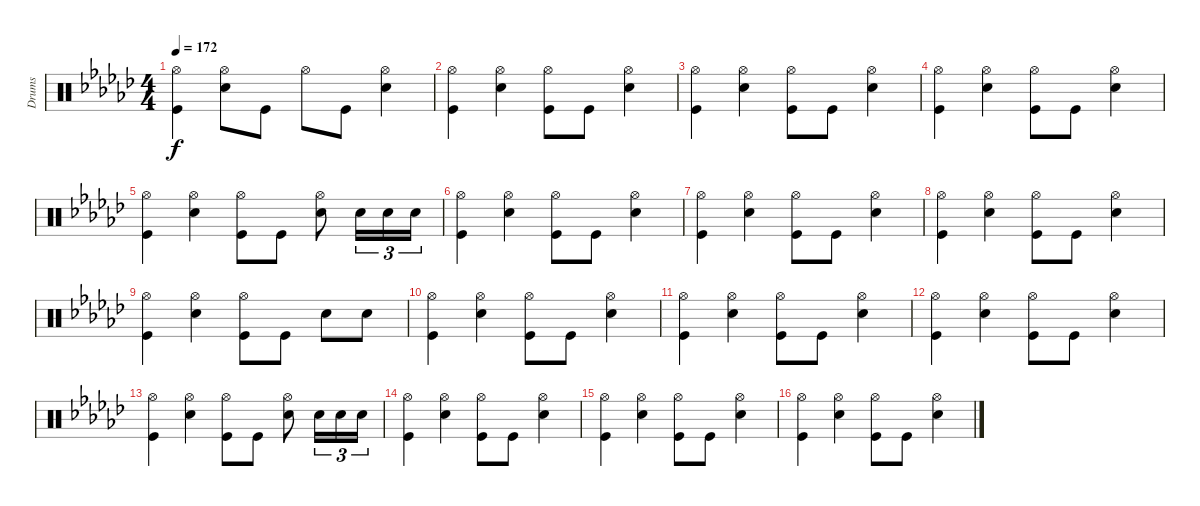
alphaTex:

\track ("Drums" "Drums") {instrument percussion}
\staff {score}
\articulation defaults
\ts (4 4)
\tempo 172
\clef neutral
\ks ebminor
("Hi-Hat (open)" "Kick (hit)").4{dy f} ("Hi-Hat (open)" "Snare (hit) 2").8 "Kick (hit)".8 "Hi-Hat (open)".8 "Kick (hit)".8 ("Hi-Hat (open)" "Snare (hit) 2").4 |
("Hi-Hat (open)" "Kick (hit)").4 ("Hi-Hat (open)" "Snare (hit) 2").4 ("Hi-Hat (open)" "Kick (hit)").8 "Kick (hit)".8 ("Hi-Hat (open)" "Snare (hit) 2").4 |
("Hi-Hat (open)" "Kick (hit)").4 ("Hi-Hat (open)" "Snare (hit) 2").4 ("Hi-Hat (open)" "Kick (hit)").8 "Kick (hit)".8 ("Hi-Hat (open)" "Snare (hit) 2").4 |
("Hi-Hat (open)" "Kick (hit)").4 ("Hi-Hat (open)" "Snare (hit) 2").4 ("Hi-Hat (open)" "Kick (hit)").8 "Kick (hit)".8 ("Hi-Hat (open)" "Snare (hit) 2").4 |
("Hi-Hat (open)" "Kick (hit)").4 ("Hi-Hat (open)" "Snare (hit) 2").4 ("Hi-Hat (open)" "Kick (hit)").8 "Kick (hit)".8 ("Hi-Hat (open)" "Snare (hit) 2").8 "Snare (hit) 2".16{tu (3 2)} "Snare (hit) 2".16{tu (3 2)} "Snare (hit) 2".16{tu (3 2)} |
("Hi-Hat (open)" "Kick (hit)").4 ("Hi-Hat (open)" "Snare (hit) 2").4 ("Hi-Hat (open)" "Kick (hit)").8 "Kick (hit)".8 ("Hi-Hat (open)" "Snare (hit) 2").4 |
("Hi-Hat (open)" "Kick (hit)").4 ("Hi-Hat (open)" "Snare (hit) 2").4 ("Hi-Hat (open)" "Kick (hit)").8 "Kick (hit)".8 ("Hi-Hat (open)" "Snare (hit) 2").4 |
("Hi-Hat (open)" "Kick (hit)").4 ("Hi-Hat (open)" "Snare (hit) 2").4 ("Hi-Hat (open)" "Kick (hit)").8 "Kick (hit)".8 ("Hi-Hat (open)" "Snare (hit) 2").4 |
("Hi-Hat (open)" "Kick (hit)").4 ("Hi-Hat (open)" "Snare (hit) 2").4 ("Hi-Hat (open)" "Kick (hit)").8 "Kick (hit)".8 "Snare (hit) 2".8 "Snare (hit) 2".8 |
("Hi-Hat (open)" "Kick (hit)").4 ("Hi-Hat (open)" "Snare (hit) 2").4 ("Hi-Hat (open)" "Kick (hit)").8 "Kick (hit)".8 ("Hi-Hat (open)" "Snare (hit) 2").4 |
("Hi-Hat (open)" "Kick (hit)").4 ("Hi-Hat (open)" "Snare (hit) 2").4 ("Hi-Hat (open)" "Kick (hit)").8 "Kick (hit)".8 ("Hi-Hat (open)" "Snare (hit) 2").4 |
("Hi-Hat (open)" "Kick (hit)").4 ("Hi-Hat (open)" "Snare (hit) 2").4 ("Hi-Hat (open)" "Kick (hit)").8 "Kick (hit)".8 ("Hi-Hat (open)" "Snare (hit) 2").4 |
("Hi-Hat (open)" "Kick (hit)").4 ("Hi-Hat (open)" "Snare (hit) 2").4 ("Hi-Hat (open)" "Kick (hit)").8 "Kick (hit)".8 ("Hi-Hat (open)" "Snare (hit) 2").8 "Snare (hit) 2".16{tu (3 2)} "Snare (hit) 2".16{tu (3 2)} "Snare (hit) 2".16{tu (3 2)} |
("Hi-Hat (open)" "Kick (hit)").4 ("Hi-Hat (open)" "Snare (hit) 2").4 ("Hi-Hat (open)" "Kick (hit)").8 "Kick (hit)".8 ("Hi-Hat (open)" "Snare (hit) 2").4 |
("Hi-Hat (open)" "Kick (hit)").4 ("Hi-Hat (open)" "Snare (hit) 2").4 ("Hi-Hat (open)" "Kick (hit)").8 "Kick (hit)".8 ("Hi-Hat (open)" "Snare (hit) 2").4 |
("Hi-Hat (open)" "Kick (hit)").4 ("Hi-Hat (open)" "Snare (hit) 2").4 ("Hi-Hat (open)" "Kick (hit)").8 "Kick (hit)".8 ("Hi-Hat (open)" "Snare (hit) 2").4
